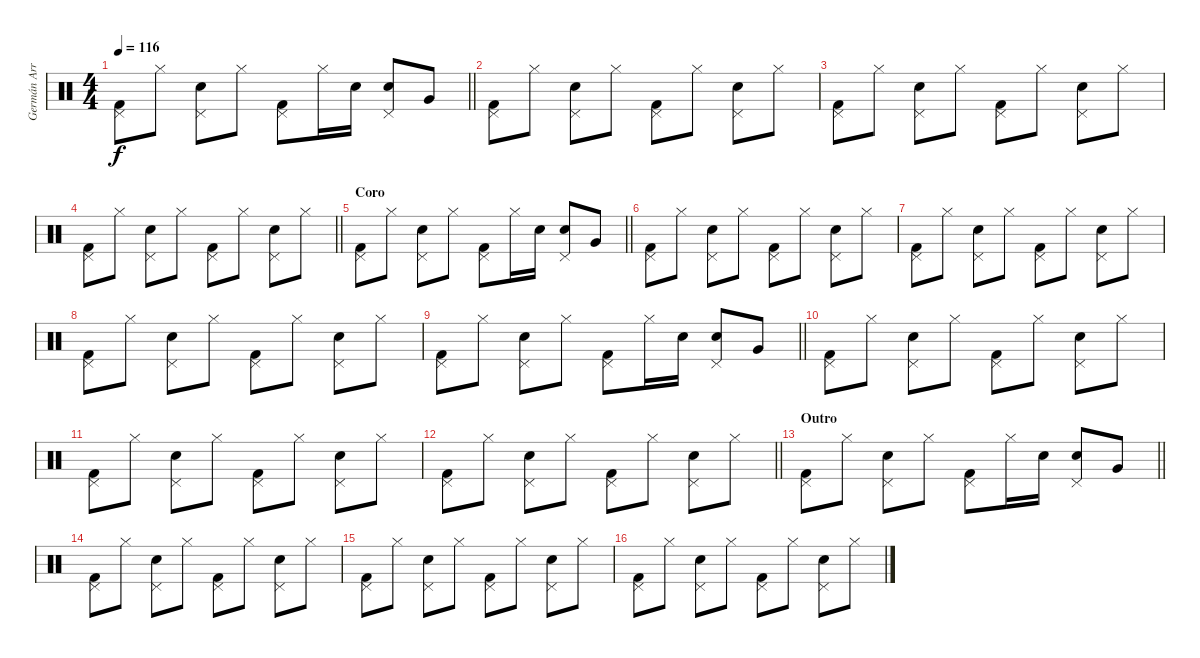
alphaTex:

\track ("Germán Arroyo (Batería)" "Germán Arr") {instrument percussion}
\staff {score}
\articulation defaults
\ts (4 4)
\tempo 116
\clef neutral
\barLineRight lightlight
\ks c
("Pedal Hi-Hat (hit)" "Kick (hit) 2").8{dy f} "Hi-Hat (closed)".8 ("Pedal Hi-Hat (hit)" "Snare (hit) 2").8 "Hi-Hat (closed)".8 ("Pedal Hi-Hat (hit)" "Kick (hit) 2").8 "Hi-Hat (closed)".16 "Snare (hit) 2".16 ("Pedal Hi-Hat (hit)" "Snare (hit) 2").8 "Very Low Tom (hit)".8 |
("Pedal Hi-Hat (hit)" "Kick (hit) 2").8 "Hi-Hat (closed)".8 ("Pedal Hi-Hat (hit)" "Snare (hit) 2").8 "Hi-Hat (closed)".8 ("Pedal Hi-Hat (hit)" "Kick (hit) 2").8 "Hi-Hat (closed)".8 ("Pedal Hi-Hat (hit)" "Snare (hit) 2").8 "Hi-Hat (closed)".8 |
("Pedal Hi-Hat (hit)" "Kick (hit) 2").8 "Hi-Hat (closed)".8 ("Pedal Hi-Hat (hit)" "Snare (hit) 2").8 "Hi-Hat (closed)".8 ("Pedal Hi-Hat (hit)" "Kick (hit) 2").8 "Hi-Hat (closed)".8 ("Pedal Hi-Hat (hit)" "Snare (hit) 2").8 "Hi-Hat (closed)".8 |
\barLineRight lightlight
("Pedal Hi-Hat (hit)" "Kick (hit) 2").8 "Hi-Hat (closed)".8 ("Pedal Hi-Hat (hit)" "Snare (hit) 2").8 "Hi-Hat (closed)".8 ("Pedal Hi-Hat (hit)" "Kick (hit) 2").8 "Hi-Hat (closed)".8 ("Pedal Hi-Hat (hit)" "Snare (hit) 2").8 "Hi-Hat (closed)".8 |
\section ("" "Coro")
\barLineRight lightlight
("Pedal Hi-Hat (hit)" "Kick (hit) 2").8 "Hi-Hat (closed)".8 ("Pedal Hi-Hat (hit)" "Snare (hit) 2").8 "Hi-Hat (closed)".8 ("Pedal Hi-Hat (hit)" "Kick (hit) 2").8 "Hi-Hat (closed)".16 "Snare (hit) 2".16 ("Pedal Hi-Hat (hit)" "Snare (hit) 2").8 "Very Low Tom (hit)".8 |
("Pedal Hi-Hat (hit)" "Kick (hit) 2").8 "Hi-Hat (closed)".8 ("Pedal Hi-Hat (hit)" "Snare (hit) 2").8 "Hi-Hat (closed)".8 ("Pedal Hi-Hat (hit)" "Kick (hit) 2").8 "Hi-Hat (closed)".8 ("Pedal Hi-Hat (hit)" "Snare (hit) 2").8 "Hi-Hat (closed)".8 |
("Pedal Hi-Hat (hit)" "Kick (hit) 2").8 "Hi-Hat (closed)".8 ("Pedal Hi-Hat (hit)" "Snare (hit) 2").8 "Hi-Hat (closed)".8 ("Pedal Hi-Hat (hit)" "Kick (hit) 2").8 "Hi-Hat (closed)".8 ("Pedal Hi-Hat (hit)" "Snare (hit) 2").8 "Hi-Hat (closed)".8 |
("Pedal Hi-Hat (hit)" "Kick (hit) 2").8 "Hi-Hat (closed)".8 ("Pedal Hi-Hat (hit)" "Snare (hit) 2").8 "Hi-Hat (closed)".8 ("Pedal Hi-Hat (hit)" "Kick (hit) 2").8 "Hi-Hat (closed)".8 ("Pedal Hi-Hat (hit)" "Snare (hit) 2").8 "Hi-Hat (closed)".8 |
\barLineRight lightlight
("Pedal Hi-Hat (hit)" "Kick (hit) 2").8 "Hi-Hat (closed)".8 ("Pedal Hi-Hat (hit)" "Snare (hit) 2").8 "Hi-Hat (closed)".8 ("Pedal Hi-Hat (hit)" "Kick (hit) 2").8 "Hi-Hat (closed)".16 "Snare (hit) 2".16 ("Pedal Hi-Hat (hit)" "Snare (hit) 2").8 "Very Low Tom (hit)".8 |
("Pedal Hi-Hat (hit)" "Kick (hit) 2").8 "Hi-Hat (closed)".8 ("Pedal Hi-Hat (hit)" "Snare (hit) 2").8 "Hi-Hat (closed)".8 ("Pedal Hi-Hat (hit)" "Kick (hit) 2").8 "Hi-Hat (closed)".8 ("Pedal Hi-Hat (hit)" "Snare (hit) 2").8 "Hi-Hat (closed)".8 |
("Pedal Hi-Hat (hit)" "Kick (hit) 2").8 "Hi-Hat (closed)".8 ("Pedal Hi-Hat (hit)" "Snare (hit) 2").8 "Hi-Hat (closed)".8 ("Pedal Hi-Hat (hit)" "Kick (hit) 2").8 "Hi-Hat (closed)".8 ("Pedal Hi-Hat (hit)" "Snare (hit) 2").8 "Hi-Hat (closed)".8 |
\barLineRight lightlight
("Pedal Hi-Hat (hit)" "Kick (hit) 2").8 "Hi-Hat (closed)".8 ("Pedal Hi-Hat (hit)" "Snare (hit) 2").8 "Hi-Hat (closed)".8 ("Pedal Hi-Hat (hit)" "Kick (hit) 2").8 "Hi-Hat (closed)".8 ("Pedal Hi-Hat (hit)" "Snare (hit) 2").8 "Hi-Hat (closed)".8 |
\section ("" "Outro")
\barLineRight lightlight
("Pedal Hi-Hat (hit)" "Kick (hit) 2").8 "Hi-Hat (closed)".8 ("Pedal Hi-Hat (hit)" "Snare (hit) 2").8 "Hi-Hat (closed)".8 ("Pedal Hi-Hat (hit)" "Kick (hit) 2").8 "Hi-Hat (closed)".16 "Snare (hit) 2".16 ("Pedal Hi-Hat (hit)" "Snare (hit) 2").8 "Very Low Tom (hit)".8 |
("Pedal Hi-Hat (hit)" "Kick (hit) 2").8 "Hi-Hat (closed)".8 ("Pedal Hi-Hat (hit)" "Snare (hit) 2").8 "Hi-Hat (closed)".8 ("Pedal Hi-Hat (hit)" "Kick (hit) 2").8 "Hi-Hat (closed)".8 ("Pedal Hi-Hat (hit)" "Snare (hit) 2").8 "Hi-Hat (closed)".8 |
("Pedal Hi-Hat (hit)" "Kick (hit) 2").8 "Hi-Hat (closed)".8 ("Pedal Hi-Hat (hit)" "Snare (hit) 2").8 "Hi-Hat (closed)".8 ("Pedal Hi-Hat (hit)" "Kick (hit) 2").8 "Hi-Hat (closed)".8 ("Pedal Hi-Hat (hit)" "Snare (hit) 2").8 "Hi-Hat (closed)".8 |
("Pedal Hi-Hat (hit)" "Kick (hit) 2").8 "Hi-Hat (closed)".8 ("Pedal Hi-Hat (hit)" "Snare (hit) 2").8 "Hi-Hat (closed)".8 ("Pedal Hi-Hat (hit)" "Kick (hit) 2").8 "Hi-Hat (closed)".8 ("Pedal Hi-Hat (hit)" "Snare (hit) 2").8 "Hi-Hat (closed)".8
